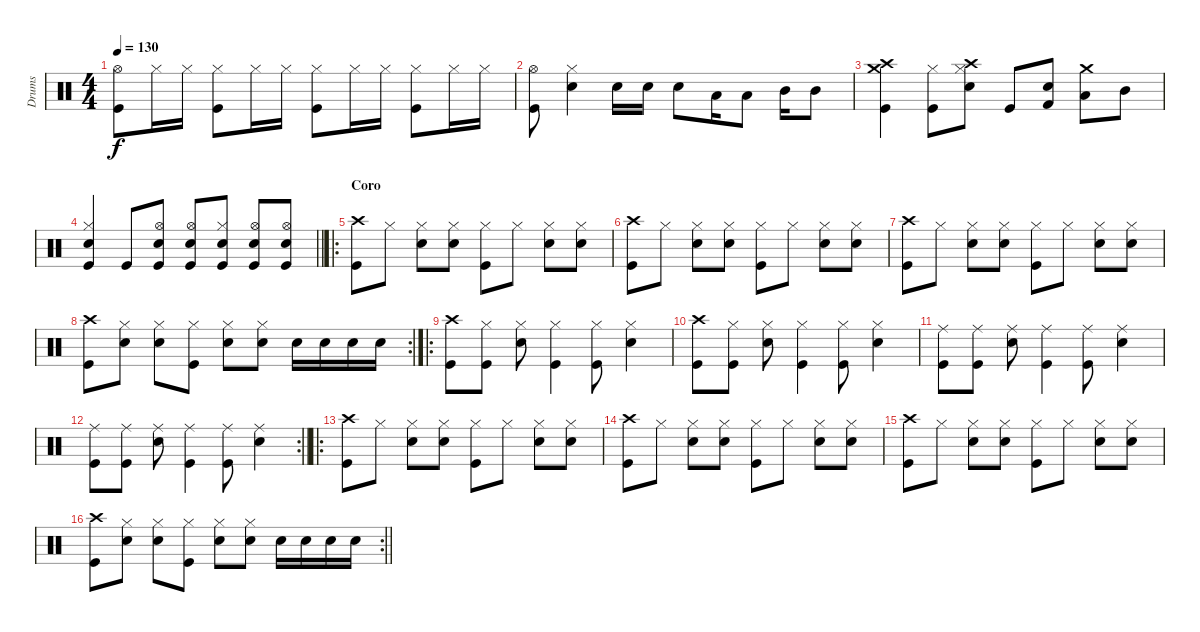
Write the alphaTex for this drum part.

\track ("Drums" "Drums") {instrument percussion}
\staff {score}
\articulation defaults
\ts (4 4)
\tempo 130
\clef neutral
\ks c
("Kick (hit)" "Hi-Hat (open)").8{dy f} "Hi-Hat (closed)".16 "Hi-Hat (closed)".16 ("Kick (hit)" "Hi-Hat (closed)").8 "Hi-Hat (closed)".16 "Hi-Hat (closed)".16 ("Kick (hit)" "Hi-Hat (closed)").8 "Hi-Hat (closed)".16 "Hi-Hat (closed)".16 ("Kick (hit)" "Hi-Hat (closed)").8 "Hi-Hat (closed)".16 "Hi-Hat (closed)".16 |
("Kick (hit)" "Hi-Hat (open)").8 ("Snare (hit) 2" "Hi-Hat (closed)").4 "Snare (hit) 2".16 "Snare (hit) 2".16 "Snare (hit) 2".8 "Low Tom (hit)".16 "Low Tom (hit)".8 "Mid Tom (hit)".16 "Mid Tom (hit)".8 |
("Kick (hit)" "Crash high (hit)" "Crash medium (hit)").4 ("Kick (hit)" "Hi-Hat (closed)").8 ("Crash high (hit)" "Snare (hit) 2" "Hi-Hat (closed)").8 "Kick (hit)".8 ("Snare (hit) 2" "Kick (hit) 2").8 ("Crash medium (hit)" "Low Tom (hit)").8 "Mid Tom (hit)".8 |
\barLineRight lightlight
("Kick (hit)" "Snare (hit) 2" "Hi-Hat (closed)").4 "Kick (hit)".8 ("Kick (hit)" "Snare (hit) 2" "Hi-Hat (open)").8 ("Kick (hit)" "Snare (hit) 2" "Hi-Hat (open)").8 ("Kick (hit)" "Snare (hit) 2" "Hi-Hat (closed)").8 ("Kick (hit)" "Snare (hit) 2" "Hi-Hat (open)").8 ("Kick (hit)" "Snare (hit) 2" "Hi-Hat (open)").8 |
\ro
\section ("" "Coro")
("Kick (hit)" "Crash high (hit)").8 "Hi-Hat (closed)".8 ("Snare (hit) 2" "Hi-Hat (closed)").8 ("Snare (hit) 2" "Hi-Hat (closed)").8 ("Kick (hit)" "Hi-Hat (closed)").8 "Hi-Hat (closed)".8 ("Snare (hit) 2" "Hi-Hat (closed)").8 ("Snare (hit) 2" "Hi-Hat (closed)").8 |
("Kick (hit)" "Crash high (hit)").8 "Hi-Hat (closed)".8 ("Snare (hit) 2" "Hi-Hat (closed)").8 ("Snare (hit) 2" "Hi-Hat (closed)").8 ("Kick (hit)" "Hi-Hat (closed)").8 "Hi-Hat (closed)".8 ("Snare (hit) 2" "Hi-Hat (closed)").8 ("Snare (hit) 2" "Hi-Hat (closed)").8 |
("Kick (hit)" "Crash high (hit)").8 "Hi-Hat (closed)".8 ("Snare (hit) 2" "Hi-Hat (closed)").8 ("Snare (hit) 2" "Hi-Hat (closed)").8 ("Kick (hit)" "Hi-Hat (closed)").8 "Hi-Hat (closed)".8 ("Snare (hit) 2" "Hi-Hat (closed)").8 ("Snare (hit) 2" "Hi-Hat (closed)").8 |
\rc 2
("Kick (hit)" "Crash high (hit)").8 ("Snare (hit) 2" "Hi-Hat (closed)").8 ("Snare (hit) 2" "Hi-Hat (closed)").8 ("Kick (hit)" "Hi-Hat (closed)").8 ("Snare (hit) 2" "Hi-Hat (closed)").8 ("Snare (hit) 2" "Hi-Hat (closed)").8 "Snare (hit) 2".16 "Snare (hit) 2".16 "Snare (hit) 2".16 "Snare (hit) 2".16 |
\ro
("Kick (hit)" "Crash high (hit)").8 ("Kick (hit)" "Hi-Hat (closed)").8 ("Snare (hit) 2" "Hi-Hat (closed)").8 ("Kick (hit)" "Hi-Hat (closed)").4 ("Kick (hit)" "Hi-Hat (closed)").8 ("Snare (hit) 2" "Hi-Hat (closed)").4 |
("Kick (hit)" "Crash high (hit)").8 ("Kick (hit)" "Hi-Hat (closed)").8 ("Snare (hit) 2" "Hi-Hat (closed)").8 ("Kick (hit)" "Hi-Hat (closed)").4 ("Kick (hit)" "Hi-Hat (closed)").8 ("Snare (hit) 2" "Hi-Hat (closed)").4 |
("Kick (hit)" "Ride (middle)").8 ("Kick (hit)" "Ride (middle)").8 ("Snare (hit) 2" "Ride (middle)").8 ("Kick (hit)" "Ride (middle)").4 ("Kick (hit)" "Ride (middle)").8 ("Snare (hit) 2" "Ride (middle)").4 |
\rc 2
\barLineRight lightlight
("Kick (hit)" "Ride (middle)").8 ("Kick (hit)" "Ride (middle)").8 ("Snare (hit) 2" "Ride (middle)").8 ("Kick (hit)" "Ride (middle)").4 ("Kick (hit)" "Ride (middle)").8 ("Snare (hit) 2" "Ride (middle)").4 |
\ro
("Kick (hit)" "Crash high (hit)").8 "Hi-Hat (closed)".8 ("Snare (hit) 2" "Hi-Hat (closed)").8 ("Snare (hit) 2" "Hi-Hat (closed)").8 ("Kick (hit)" "Hi-Hat (closed)").8 "Hi-Hat (closed)".8 ("Snare (hit) 2" "Hi-Hat (closed)").8 ("Snare (hit) 2" "Hi-Hat (closed)").8 |
("Kick (hit)" "Crash high (hit)").8 "Hi-Hat (closed)".8 ("Snare (hit) 2" "Hi-Hat (closed)").8 ("Snare (hit) 2" "Hi-Hat (closed)").8 ("Kick (hit)" "Hi-Hat (closed)").8 "Hi-Hat (closed)".8 ("Snare (hit) 2" "Hi-Hat (closed)").8 ("Snare (hit) 2" "Hi-Hat (closed)").8 |
("Kick (hit)" "Crash high (hit)").8 "Hi-Hat (closed)".8 ("Snare (hit) 2" "Hi-Hat (closed)").8 ("Snare (hit) 2" "Hi-Hat (closed)").8 ("Kick (hit)" "Hi-Hat (closed)").8 "Hi-Hat (closed)".8 ("Snare (hit) 2" "Hi-Hat (closed)").8 ("Snare (hit) 2" "Hi-Hat (closed)").8 |
\rc 2
\barLineRight lightlight
("Kick (hit)" "Crash high (hit)").8 ("Snare (hit) 2" "Hi-Hat (closed)").8 ("Snare (hit) 2" "Hi-Hat (closed)").8 ("Kick (hit)" "Hi-Hat (closed)").8 ("Snare (hit) 2" "Hi-Hat (closed)").8 ("Snare (hit) 2" "Hi-Hat (closed)").8 "Snare (hit) 2".16 "Snare (hit) 2".16 "Snare (hit) 2".16 "Snare (hit) 2".16
